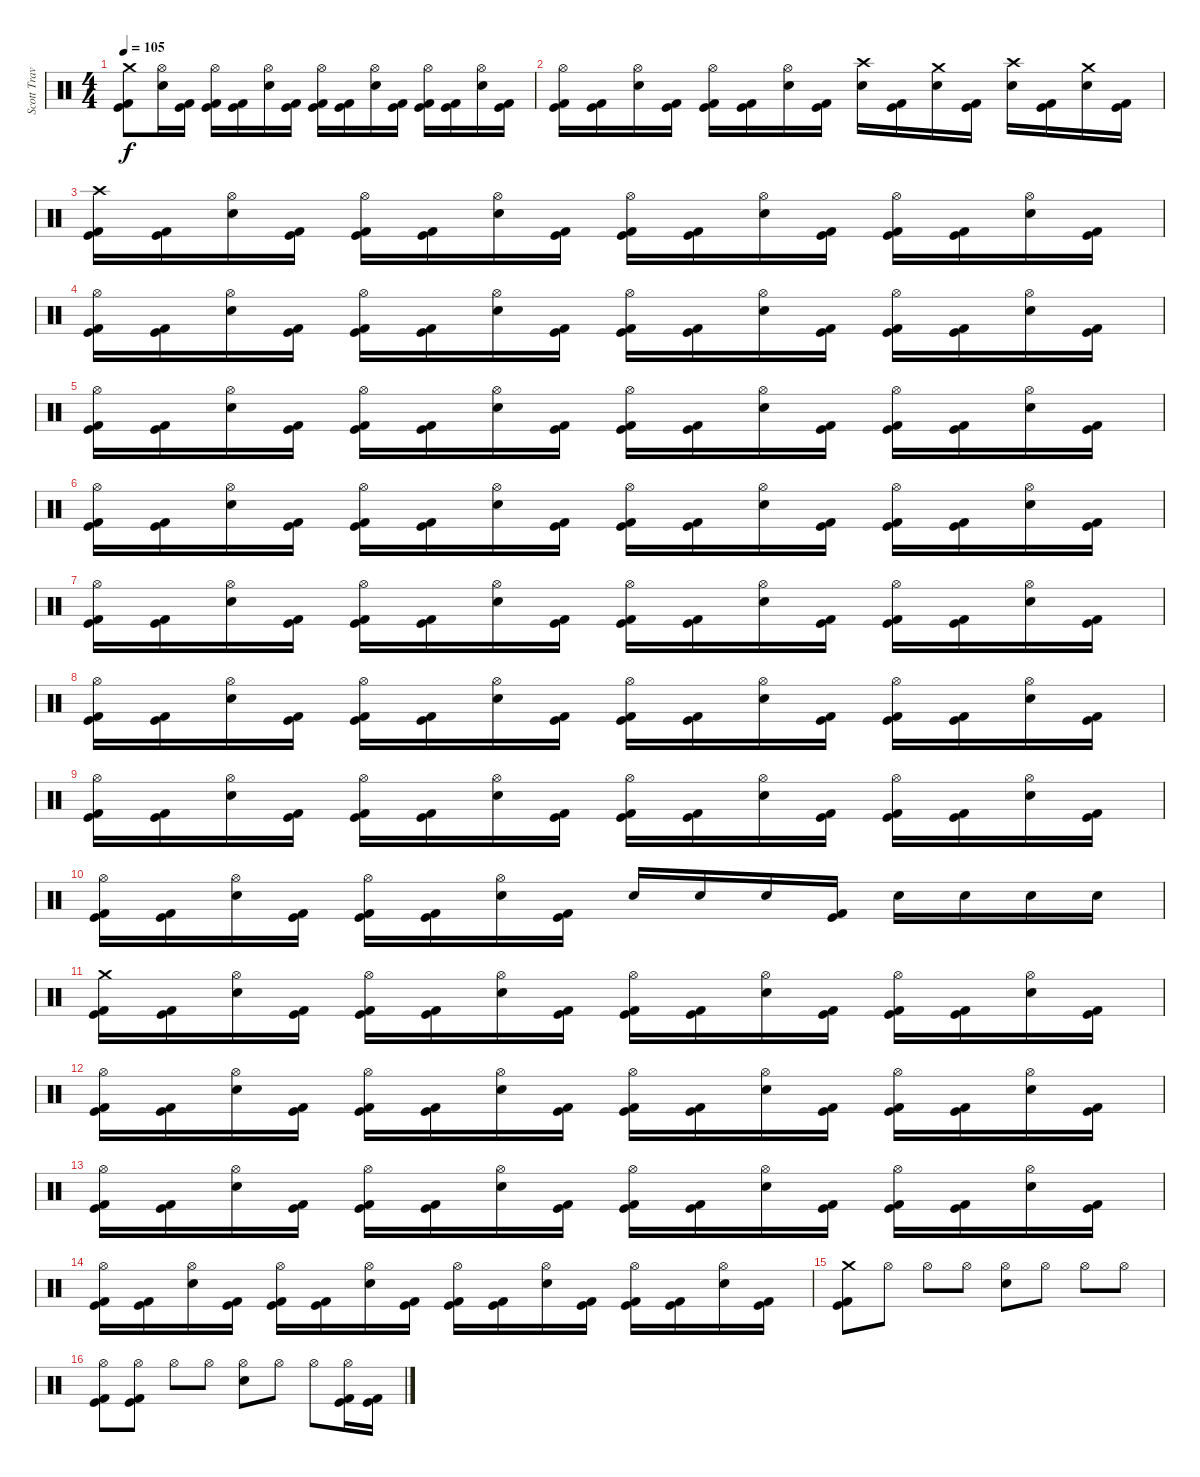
\track ("Scott Travis" "Scott Trav") {instrument percussion}
\staff {score}
\articulation defaults
\ts (4 4)
\tempo 105
\clef neutral
\ks c
("Crash medium (hit)" "Kick (hit)" "Kick (hit) 2").8{dy f} ("Hi-Hat (open)" "Snare (hit) 2").16 ("Kick (hit) 2" "Kick (hit)").16 ("Hi-Hat (open)" "Kick (hit) 2" "Kick (hit)").16 ("Kick (hit) 2" "Kick (hit)").16 ("Hi-Hat (open)" "Snare (hit) 2").16 ("Kick (hit) 2" "Kick (hit)").16 ("Hi-Hat (open)" "Kick (hit) 2" "Kick (hit)").16 ("Kick (hit) 2" "Kick (hit)").16 ("Hi-Hat (open)" "Snare (hit) 2").16 ("Kick (hit) 2" "Kick (hit)").16 ("Hi-Hat (open)" "Kick (hit) 2" "Kick (hit)").16 ("Kick (hit) 2" "Kick (hit)").16 ("Hi-Hat (open)" "Snare (hit) 2").16 ("Kick (hit) 2" "Kick (hit)").16 |
("Hi-Hat (open)" "Kick (hit) 2" "Kick (hit)").16 ("Kick (hit) 2" "Kick (hit)").16 ("Hi-Hat (open)" "Snare (hit) 2").16 ("Kick (hit) 2" "Kick (hit)").16 ("Hi-Hat (open)" "Kick (hit) 2" "Kick (hit)").16 ("Kick (hit) 2" "Kick (hit)").16 ("Hi-Hat (open)" "Snare (hit) 2").16 ("Kick (hit) 2" "Kick (hit)").16 ("Crash high (hit)" "Snare (hit) 2").16 ("Kick (hit) 2" "Kick (hit)").16 ("Crash medium (hit)" "Snare (hit) 2").16 ("Kick (hit) 2" "Kick (hit)").16 ("Crash high (hit)" "Snare (hit) 2").16 ("Kick (hit) 2" "Kick (hit)").16 ("Crash medium (hit)" "Snare (hit) 2").16 ("Kick (hit) 2" "Kick (hit)").16 |
("Crash high (hit)" "Kick (hit) 2" "Kick (hit)").16 ("Kick (hit) 2" "Kick (hit)").16 ("Hi-Hat (open)" "Snare (hit) 2").16 ("Kick (hit) 2" "Kick (hit)").16 ("Hi-Hat (open)" "Kick (hit) 2" "Kick (hit)").16 ("Kick (hit) 2" "Kick (hit)").16 ("Hi-Hat (open)" "Snare (hit) 2").16 ("Kick (hit) 2" "Kick (hit)").16 ("Hi-Hat (open)" "Kick (hit) 2" "Kick (hit)").16 ("Kick (hit) 2" "Kick (hit)").16 ("Hi-Hat (open)" "Snare (hit) 2").16 ("Kick (hit) 2" "Kick (hit)").16 ("Hi-Hat (open)" "Kick (hit) 2" "Kick (hit)").16 ("Kick (hit) 2" "Kick (hit)").16 ("Hi-Hat (open)" "Snare (hit) 2").16 ("Kick (hit) 2" "Kick (hit)").16 |
("Hi-Hat (open)" "Kick (hit) 2" "Kick (hit)").16 ("Kick (hit) 2" "Kick (hit)").16 ("Hi-Hat (open)" "Snare (hit) 2").16 ("Kick (hit) 2" "Kick (hit)").16 ("Hi-Hat (open)" "Kick (hit) 2" "Kick (hit)").16 ("Kick (hit) 2" "Kick (hit)").16 ("Hi-Hat (open)" "Snare (hit) 2").16 ("Kick (hit) 2" "Kick (hit)").16 ("Hi-Hat (open)" "Kick (hit) 2" "Kick (hit)").16 ("Kick (hit) 2" "Kick (hit)").16 ("Hi-Hat (open)" "Snare (hit) 2").16 ("Kick (hit) 2" "Kick (hit)").16 ("Hi-Hat (open)" "Kick (hit) 2" "Kick (hit)").16 ("Kick (hit) 2" "Kick (hit)").16 ("Hi-Hat (open)" "Snare (hit) 2").16 ("Kick (hit) 2" "Kick (hit)").16 |
("Hi-Hat (open)" "Kick (hit) 2" "Kick (hit)").16 ("Kick (hit) 2" "Kick (hit)").16 ("Hi-Hat (open)" "Snare (hit) 2").16 ("Kick (hit) 2" "Kick (hit)").16 ("Hi-Hat (open)" "Kick (hit) 2" "Kick (hit)").16 ("Kick (hit) 2" "Kick (hit)").16 ("Hi-Hat (open)" "Snare (hit) 2").16 ("Kick (hit) 2" "Kick (hit)").16 ("Hi-Hat (open)" "Kick (hit) 2" "Kick (hit)").16 ("Kick (hit) 2" "Kick (hit)").16 ("Hi-Hat (open)" "Snare (hit) 2").16 ("Kick (hit) 2" "Kick (hit)").16 ("Hi-Hat (open)" "Kick (hit) 2" "Kick (hit)").16 ("Kick (hit) 2" "Kick (hit)").16 ("Hi-Hat (open)" "Snare (hit) 2").16 ("Kick (hit) 2" "Kick (hit)").16 |
("Hi-Hat (open)" "Kick (hit) 2" "Kick (hit)").16 ("Kick (hit) 2" "Kick (hit)").16 ("Hi-Hat (open)" "Snare (hit) 2").16 ("Kick (hit) 2" "Kick (hit)").16 ("Hi-Hat (open)" "Kick (hit) 2" "Kick (hit)").16 ("Kick (hit) 2" "Kick (hit)").16 ("Hi-Hat (open)" "Snare (hit) 2").16 ("Kick (hit) 2" "Kick (hit)").16 ("Hi-Hat (open)" "Kick (hit) 2" "Kick (hit)").16 ("Kick (hit) 2" "Kick (hit)").16 ("Hi-Hat (open)" "Snare (hit) 2").16 ("Kick (hit) 2" "Kick (hit)").16 ("Hi-Hat (open)" "Kick (hit) 2" "Kick (hit)").16 ("Kick (hit) 2" "Kick (hit)").16 ("Hi-Hat (open)" "Snare (hit) 2").16 ("Kick (hit) 2" "Kick (hit)").16 |
("Hi-Hat (open)" "Kick (hit) 2" "Kick (hit)").16 ("Kick (hit) 2" "Kick (hit)").16 ("Hi-Hat (open)" "Snare (hit) 2").16 ("Kick (hit) 2" "Kick (hit)").16 ("Hi-Hat (open)" "Kick (hit) 2" "Kick (hit)").16 ("Kick (hit) 2" "Kick (hit)").16 ("Hi-Hat (open)" "Snare (hit) 2").16 ("Kick (hit) 2" "Kick (hit)").16 ("Hi-Hat (open)" "Kick (hit) 2" "Kick (hit)").16 ("Kick (hit) 2" "Kick (hit)").16 ("Hi-Hat (open)" "Snare (hit) 2").16 ("Kick (hit) 2" "Kick (hit)").16 ("Hi-Hat (open)" "Kick (hit) 2" "Kick (hit)").16 ("Kick (hit) 2" "Kick (hit)").16 ("Hi-Hat (open)" "Snare (hit) 2").16 ("Kick (hit) 2" "Kick (hit)").16 |
("Hi-Hat (open)" "Kick (hit) 2" "Kick (hit)").16 ("Kick (hit) 2" "Kick (hit)").16 ("Hi-Hat (open)" "Snare (hit) 2").16 ("Kick (hit) 2" "Kick (hit)").16 ("Hi-Hat (open)" "Kick (hit) 2" "Kick (hit)").16 ("Kick (hit) 2" "Kick (hit)").16 ("Hi-Hat (open)" "Snare (hit) 2").16 ("Kick (hit) 2" "Kick (hit)").16 ("Hi-Hat (open)" "Kick (hit) 2" "Kick (hit)").16 ("Kick (hit) 2" "Kick (hit)").16 ("Hi-Hat (open)" "Snare (hit) 2").16 ("Kick (hit) 2" "Kick (hit)").16 ("Hi-Hat (open)" "Kick (hit) 2" "Kick (hit)").16 ("Kick (hit) 2" "Kick (hit)").16 ("Hi-Hat (open)" "Snare (hit) 2").16 ("Kick (hit) 2" "Kick (hit)").16 |
("Hi-Hat (open)" "Kick (hit) 2" "Kick (hit)").16 ("Kick (hit) 2" "Kick (hit)").16 ("Hi-Hat (open)" "Snare (hit) 2").16 ("Kick (hit) 2" "Kick (hit)").16 ("Hi-Hat (open)" "Kick (hit) 2" "Kick (hit)").16 ("Kick (hit) 2" "Kick (hit)").16 ("Hi-Hat (open)" "Snare (hit) 2").16 ("Kick (hit) 2" "Kick (hit)").16 ("Hi-Hat (open)" "Kick (hit) 2" "Kick (hit)").16 ("Kick (hit) 2" "Kick (hit)").16 ("Hi-Hat (open)" "Snare (hit) 2").16 ("Kick (hit) 2" "Kick (hit)").16 ("Hi-Hat (open)" "Kick (hit) 2" "Kick (hit)").16 ("Kick (hit) 2" "Kick (hit)").16 ("Hi-Hat (open)" "Snare (hit) 2").16 ("Kick (hit) 2" "Kick (hit)").16 |
("Hi-Hat (open)" "Kick (hit) 2" "Kick (hit)").16 ("Kick (hit) 2" "Kick (hit)").16 ("Hi-Hat (open)" "Snare (hit) 2").16 ("Kick (hit) 2" "Kick (hit)").16 ("Hi-Hat (open)" "Kick (hit) 2" "Kick (hit)").16 ("Kick (hit) 2" "Kick (hit)").16 ("Hi-Hat (open)" "Snare (hit) 2").16 ("Kick (hit) 2" "Kick (hit)").16 "Snare (hit) 2".16 "Snare (hit) 2".16 "Snare (hit) 2".16 ("Kick (hit) 2" "Kick (hit)").16 "Snare (hit) 2".16 "Snare (hit) 2".16 "Snare (hit) 2".16 "Snare (hit) 2".16 |
("Crash medium (hit)" "Kick (hit) 2" "Kick (hit)").16 ("Kick (hit)" "Kick (hit) 2").16 ("Hi-Hat (open)" "Snare (hit) 2").16 ("Kick (hit) 2" "Kick (hit)").16 ("Hi-Hat (open)" "Kick (hit) 2" "Kick (hit)").16 ("Kick (hit) 2" "Kick (hit)").16 ("Hi-Hat (open)" "Snare (hit) 2").16 ("Kick (hit) 2" "Kick (hit)").16 ("Hi-Hat (open)" "Kick (hit) 2" "Kick (hit)").16 ("Kick (hit) 2" "Kick (hit)").16 ("Hi-Hat (open)" "Snare (hit) 2").16 ("Kick (hit) 2" "Kick (hit)").16 ("Hi-Hat (open)" "Kick (hit) 2" "Kick (hit)").16 ("Kick (hit) 2" "Kick (hit)").16 ("Hi-Hat (open)" "Snare (hit) 2").16 ("Kick (hit) 2" "Kick (hit)").16 |
("Hi-Hat (open)" "Kick (hit) 2" "Kick (hit)").16 ("Kick (hit) 2" "Kick (hit)").16 ("Hi-Hat (open)" "Snare (hit) 2").16 ("Kick (hit) 2" "Kick (hit)").16 ("Hi-Hat (open)" "Kick (hit) 2" "Kick (hit)").16 ("Kick (hit) 2" "Kick (hit)").16 ("Hi-Hat (open)" "Snare (hit) 2").16 ("Kick (hit) 2" "Kick (hit)").16 ("Hi-Hat (open)" "Kick (hit) 2" "Kick (hit)").16 ("Kick (hit) 2" "Kick (hit)").16 ("Hi-Hat (open)" "Snare (hit) 2").16 ("Kick (hit) 2" "Kick (hit)").16 ("Hi-Hat (open)" "Kick (hit) 2" "Kick (hit)").16 ("Kick (hit) 2" "Kick (hit)").16 ("Hi-Hat (open)" "Snare (hit) 2").16 ("Kick (hit) 2" "Kick (hit)").16 |
("Hi-Hat (open)" "Kick (hit) 2" "Kick (hit)").16 ("Kick (hit)" "Kick (hit) 2").16 ("Hi-Hat (open)" "Snare (hit) 2").16 ("Kick (hit) 2" "Kick (hit)").16 ("Hi-Hat (open)" "Kick (hit) 2" "Kick (hit)").16 ("Kick (hit) 2" "Kick (hit)").16 ("Hi-Hat (open)" "Snare (hit) 2").16 ("Kick (hit) 2" "Kick (hit)").16 ("Hi-Hat (open)" "Kick (hit) 2" "Kick (hit)").16 ("Kick (hit) 2" "Kick (hit)").16 ("Hi-Hat (open)" "Snare (hit) 2").16 ("Kick (hit) 2" "Kick (hit)").16 ("Hi-Hat (open)" "Kick (hit) 2" "Kick (hit)").16 ("Kick (hit) 2" "Kick (hit)").16 ("Hi-Hat (open)" "Snare (hit) 2").16 ("Kick (hit) 2" "Kick (hit)").16 |
("Hi-Hat (open)" "Kick (hit) 2" "Kick (hit)").16 ("Kick (hit) 2" "Kick (hit)").16 ("Hi-Hat (open)" "Snare (hit) 2").16 ("Kick (hit) 2" "Kick (hit)").16 ("Hi-Hat (open)" "Kick (hit) 2" "Kick (hit)").16 ("Kick (hit) 2" "Kick (hit)").16 ("Hi-Hat (open)" "Snare (hit) 2").16 ("Kick (hit) 2" "Kick (hit)").16 ("Hi-Hat (open)" "Kick (hit) 2" "Kick (hit)").16 ("Kick (hit) 2" "Kick (hit)").16 ("Hi-Hat (open)" "Snare (hit) 2").16 ("Kick (hit) 2" "Kick (hit)").16 ("Hi-Hat (open)" "Kick (hit) 2" "Kick (hit)").16 ("Kick (hit) 2" "Kick (hit)").16 ("Hi-Hat (open)" "Snare (hit) 2").16 ("Kick (hit) 2" "Kick (hit)").16 |
("Crash medium (hit)" "Kick (hit)" "Kick (hit) 2").8 "Hi-Hat (open)".8 "Hi-Hat (open)".8 "Hi-Hat (open)".8 ("Hi-Hat (open)" "Snare (hit) 2").8 "Hi-Hat (open)".8 "Hi-Hat (open)".8 "Hi-Hat (open)".8 |
("Hi-Hat (open)" "Kick (hit)" "Kick (hit) 2").8 ("Hi-Hat (open)" "Kick (hit)" "Kick (hit) 2").8 "Hi-Hat (open)".8 "Hi-Hat (open)".8 ("Hi-Hat (open)" "Snare (hit) 2").8 "Hi-Hat (open)".8 "Hi-Hat (open)".8 ("Hi-Hat (open)" "Kick (hit) 2" "Kick (hit)").16 ("Kick (hit)" "Kick (hit) 2").16
